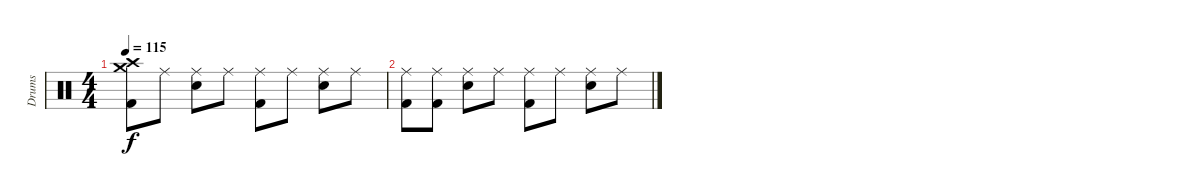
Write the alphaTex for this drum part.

\track ("Drums" "Drums") {instrument percussion}
\staff {score}
\articulation defaults
\ts (4 4)
\tempo 115
\clef neutral
\ks c
("Crash high (hit)" "Crash medium (hit)" "Kick (hit) 2").8{dy f} "Ride (middle)".8 ("Ride (middle)" "Electric Snare (hit)").8 "Ride (middle)".8 ("Ride (middle)" "Kick (hit) 2").8 "Ride (middle)".8 ("Ride (middle)" "Electric Snare (hit)").8 "Ride (middle)".8 |
("Ride (middle)" "Kick (hit) 2").8 ("Ride (middle)" "Kick (hit) 2").8 ("Ride (middle)" "Electric Snare (hit)").8 "Ride (middle)".8 ("Ride (middle)" "Kick (hit) 2").8 "Ride (middle)".8 ("Ride (middle)" "Electric Snare (hit)").8 "Ride (middle)".8
